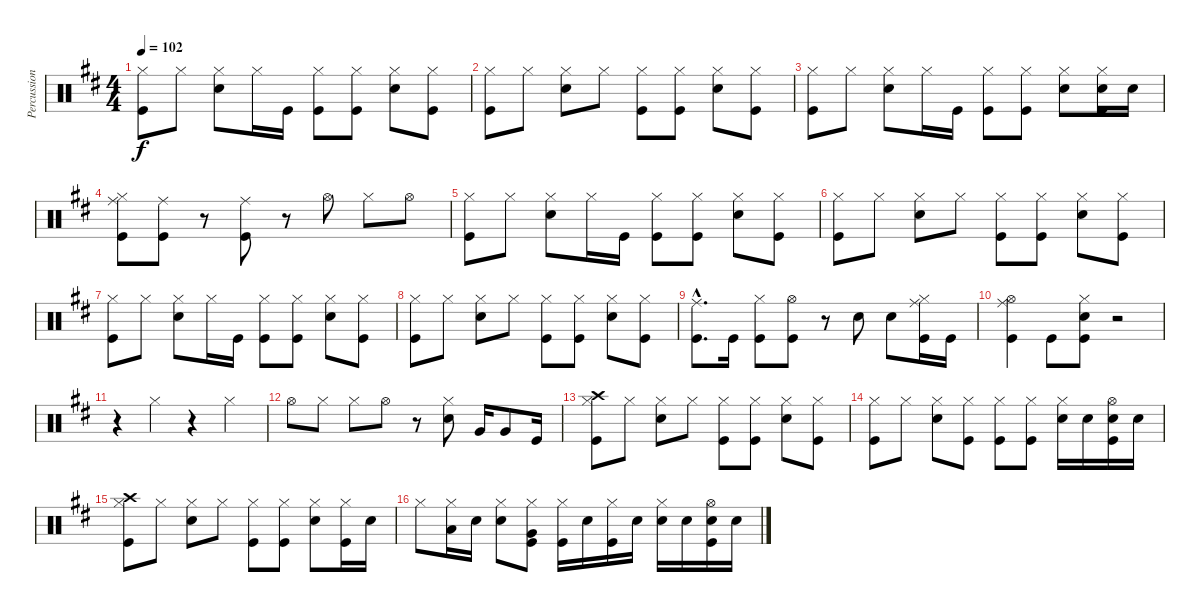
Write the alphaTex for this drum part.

\track ("Percussion" "Percussion") {instrument percussion}
\staff {score}
\articulation defaults
\ts (4 4)
\tempo 102
\clef neutral
\ks d
("Hi-Hat (closed)" "Kick (hit)").8{dy f} "Hi-Hat (closed)".8 ("Hi-Hat (closed)" "Snare (hit) 2").8 "Hi-Hat (closed)".16 "Kick (hit)".16 ("Hi-Hat (closed)" "Kick (hit)").8 ("Hi-Hat (closed)" "Kick (hit)").8 ("Hi-Hat (closed)" "Snare (hit) 2").8 ("Hi-Hat (closed)" "Kick (hit)").8 |
("Hi-Hat (closed)" "Kick (hit)").8 "Hi-Hat (closed)".8 ("Hi-Hat (closed)" "Snare (hit) 2").8 "Hi-Hat (closed)".8 ("Hi-Hat (closed)" "Kick (hit)").8 ("Hi-Hat (closed)" "Kick (hit)").8 ("Hi-Hat (closed)" "Snare (hit) 2").8 ("Hi-Hat (closed)" "Kick (hit)").8 |
("Hi-Hat (closed)" "Kick (hit)").8 "Hi-Hat (closed)".8 ("Hi-Hat (closed)" "Snare (hit) 2").8 "Hi-Hat (closed)".16 "Kick (hit)".16 ("Hi-Hat (closed)" "Kick (hit)").8 ("Hi-Hat (closed)" "Kick (hit)").8 ("Hi-Hat (closed)" "Snare (hit) 2").8 ("Hi-Hat (closed)" "Snare (hit) 2" "Kick (hit)").16 "Snare (hit) 2".16 |
("Hi-Hat (closed)" "Ride (middle)" "Kick (hit)").8 ("Ride (middle)" "Kick (hit)").8 r.8 ("Ride (middle)" "Kick (hit)").8 r.8 "Hi-Hat (open)".8 "Hi-Hat (closed)".8 "Hi-Hat (open)".8 |
("Hi-Hat (closed)" "Kick (hit)").8 "Hi-Hat (closed)".8 ("Hi-Hat (closed)" "Snare (hit) 2").8 "Hi-Hat (closed)".16 "Kick (hit)".16 ("Hi-Hat (closed)" "Kick (hit)").8 ("Hi-Hat (closed)" "Kick (hit)").8 ("Hi-Hat (closed)" "Snare (hit) 2").8 ("Hi-Hat (closed)" "Kick (hit)").8 |
("Hi-Hat (closed)" "Kick (hit)").8 "Hi-Hat (closed)".8 ("Hi-Hat (closed)" "Snare (hit) 2").8 "Hi-Hat (closed)".8 ("Hi-Hat (closed)" "Kick (hit)").8 ("Hi-Hat (closed)" "Kick (hit)").8 ("Hi-Hat (closed)" "Snare (hit) 2").8 ("Hi-Hat (closed)" "Kick (hit)").8 |
("Hi-Hat (closed)" "Kick (hit)").8 "Hi-Hat (closed)".8 ("Hi-Hat (closed)" "Snare (hit) 2").8 "Hi-Hat (closed)".16 "Kick (hit)".16 ("Hi-Hat (closed)" "Kick (hit)").8 ("Hi-Hat (closed)" "Kick (hit)").8 ("Hi-Hat (closed)" "Snare (hit) 2").8 ("Hi-Hat (closed)" "Kick (hit)").8 |
("Hi-Hat (closed)" "Kick (hit)").8 "Hi-Hat (closed)".8 ("Hi-Hat (closed)" "Snare (hit) 2").8 "Hi-Hat (closed)".8 ("Hi-Hat (closed)" "Kick (hit)").8 ("Hi-Hat (closed)" "Kick (hit)").8 ("Hi-Hat (closed)" "Snare (hit) 2").8 ("Hi-Hat (closed)" "Kick (hit)").8 |
("Ride (middle)"{hac} "Kick (hit)"{hac}).8{d} "Kick (hit)".16 ("Hi-Hat (closed)" "Kick (hit)").8 ("Hi-Hat (open)" "Kick (hit)").8 r.8 "Snare (hit) 2".8 "Snare (hit) 2".8 ("Hi-Hat (closed)" "Ride (middle)" "Kick (hit)").16 "Kick (hit)".16 |
("Hi-Hat (open)" "Ride (middle)" "Kick (hit)").4 "Kick (hit)".8 ("Hi-Hat (closed)" "Snare (hit) 2" "Kick (hit)").8 r.2 |
r.4 "Hi-Hat (closed)".4 r.4 "Hi-Hat (closed)".4 |
"Hi-Hat (open)".8 "Hi-Hat (closed)".8 "Hi-Hat (closed)".8 "Hi-Hat (open)".8 r.8 ("Hi-Hat (closed)" "Snare (hit) 2").8 "Very Low Tom (hit)".16 "Very Low Tom (hit)".8 "Kick (hit)".16 |
("Hi-Hat (closed)" "Crash high (hit)" "Kick (hit)").8 "Hi-Hat (closed)".8 ("Hi-Hat (closed)" "Snare (hit) 2").8 "Hi-Hat (closed)".8 ("Hi-Hat (closed)" "Kick (hit)").8 ("Hi-Hat (closed)" "Kick (hit)").8 ("Hi-Hat (closed)" "Snare (hit) 2").8 ("Hi-Hat (closed)" "Kick (hit)").8 |
("Hi-Hat (closed)" "Kick (hit)").8 "Hi-Hat (closed)".8 ("Hi-Hat (closed)" "Snare (hit) 2").8 ("Hi-Hat (closed)" "Kick (hit)").8 ("Hi-Hat (closed)" "Kick (hit)").8 ("Hi-Hat (closed)" "Kick (hit)").8 ("Hi-Hat (closed)" "Snare (hit) 2").16 "Snare (hit) 2".16 ("Hi-Hat (open)" "Snare (hit) 2" "Kick (hit)").16 "Snare (hit) 2".16 |
("Hi-Hat (closed)" "Crash high (hit)" "Kick (hit)").8 "Hi-Hat (closed)".8 ("Hi-Hat (closed)" "Snare (hit) 2").8 "Hi-Hat (closed)".8 ("Hi-Hat (closed)" "Kick (hit)").8 ("Hi-Hat (closed)" "Kick (hit)").8 ("Hi-Hat (closed)" "Snare (hit) 2").8 ("Hi-Hat (closed)" "Kick (hit)").16 "Snare (hit) 2".16 |
"Hi-Hat (closed)".8 ("Hi-Hat (closed)" "Low Tom (hit)").16 "Snare (hit) 2".16 ("Hi-Hat (closed)" "Snare (hit) 2").8 ("Hi-Hat (closed)" "Very Low Tom (hit)" "Kick (hit)").8 ("Hi-Hat (closed)" "Kick (hit)").16 "Snare (hit) 2".16 ("Hi-Hat (closed)" "Kick (hit)").16 "Snare (hit) 2".16 ("Hi-Hat (closed)" "Snare (hit) 2").16 "Snare (hit) 2".16 ("Hi-Hat (open)" "Snare (hit) 2" "Kick (hit)").16 "Snare (hit) 2".16
